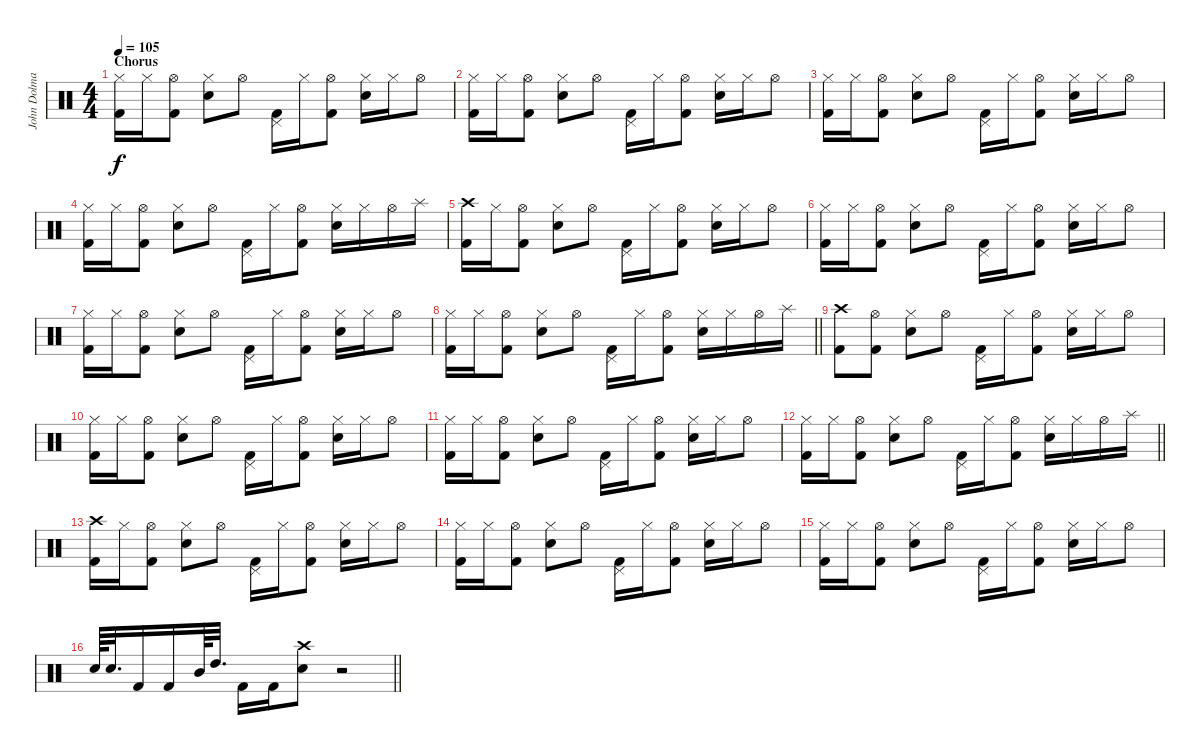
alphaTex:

\track ("John Dolmayan" "John Dolma") {instrument percussion}
\staff {score}
\articulation defaults
\ts (4 4)
\section ("" "Chorus")
\tempo 105
\clef neutral
\ks c
("Hi-Hat (closed)" "Kick (hit) 2").16{dy f} "Hi-Hat (closed)".16 ("Hi-Hat (open)" "Kick (hit) 2").8 ("Hi-Hat (closed)" "Electric Snare (hit)").8 "Hi-Hat (open)".8 ("Pedal Hi-Hat (hit)" "Kick (hit) 2").16 "Hi-Hat (closed)".16 ("Hi-Hat (open)" "Kick (hit) 2").8 ("Hi-Hat (closed)" "Electric Snare (hit)").16 "Hi-Hat (closed)".16 "Hi-Hat (open)".8 |
("Hi-Hat (closed)" "Kick (hit) 2").16 "Hi-Hat (closed)".16 ("Hi-Hat (open)" "Kick (hit) 2").8 ("Hi-Hat (closed)" "Electric Snare (hit)").8 "Hi-Hat (open)".8 ("Pedal Hi-Hat (hit)" "Kick (hit) 2").16 "Hi-Hat (closed)".16 ("Hi-Hat (open)" "Kick (hit) 2").8 ("Hi-Hat (closed)" "Electric Snare (hit)").16 "Hi-Hat (closed)".16 "Hi-Hat (open)".8 |
("Hi-Hat (closed)" "Kick (hit) 2").16 "Hi-Hat (closed)".16 ("Hi-Hat (open)" "Kick (hit) 2").8 ("Hi-Hat (closed)" "Electric Snare (hit)").8 "Hi-Hat (open)".8 ("Pedal Hi-Hat (hit)" "Kick (hit) 2").16 "Hi-Hat (closed)".16 ("Hi-Hat (open)" "Kick (hit) 2").8 ("Hi-Hat (closed)" "Electric Snare (hit)").16 "Hi-Hat (closed)".16 "Hi-Hat (open)".8 |
("Hi-Hat (closed)" "Kick (hit) 2").16 "Hi-Hat (closed)".16 ("Hi-Hat (open)" "Kick (hit) 2").8 ("Hi-Hat (closed)" "Electric Snare (hit)").8 "Hi-Hat (open)".8 ("Pedal Hi-Hat (hit)" "Kick (hit) 2").16 "Hi-Hat (closed)".16 ("Hi-Hat (open)" "Kick (hit) 2").8 ("Hi-Hat (closed)" "Electric Snare (hit)").16 "Hi-Hat (closed)".16 "Hi-Hat (open)".16 "Splash (hit)".16 |
("Crash high (hit)" "Kick (hit) 2").16 "Hi-Hat (closed)".16 ("Hi-Hat (open)" "Kick (hit) 2").8 ("Hi-Hat (closed)" "Electric Snare (hit)").8 "Hi-Hat (open)".8 ("Pedal Hi-Hat (hit)" "Kick (hit) 2").16 "Hi-Hat (closed)".16 ("Hi-Hat (open)" "Kick (hit) 2").8 ("Hi-Hat (closed)" "Electric Snare (hit)").16 "Hi-Hat (closed)".16 "Hi-Hat (open)".8 |
("Hi-Hat (closed)" "Kick (hit) 2").16 "Hi-Hat (closed)".16 ("Hi-Hat (open)" "Kick (hit) 2").8 ("Hi-Hat (closed)" "Electric Snare (hit)").8 "Hi-Hat (open)".8 ("Pedal Hi-Hat (hit)" "Kick (hit) 2").16 "Hi-Hat (closed)".16 ("Hi-Hat (open)" "Kick (hit) 2").8 ("Hi-Hat (closed)" "Electric Snare (hit)").16 "Hi-Hat (closed)".16 "Hi-Hat (open)".8 |
("Hi-Hat (closed)" "Kick (hit) 2").16 "Hi-Hat (closed)".16 ("Hi-Hat (open)" "Kick (hit) 2").8 ("Hi-Hat (closed)" "Electric Snare (hit)").8 "Hi-Hat (open)".8 ("Pedal Hi-Hat (hit)" "Kick (hit) 2").16 "Hi-Hat (closed)".16 ("Hi-Hat (open)" "Kick (hit) 2").8 ("Hi-Hat (closed)" "Electric Snare (hit)").16 "Hi-Hat (closed)".16 "Hi-Hat (open)".8 |
\barLineRight lightlight
("Hi-Hat (closed)" "Kick (hit) 2").16 "Hi-Hat (closed)".16 ("Hi-Hat (open)" "Kick (hit) 2").8 ("Hi-Hat (closed)" "Electric Snare (hit)").8 "Hi-Hat (open)".8 ("Pedal Hi-Hat (hit)" "Kick (hit) 2").16 "Hi-Hat (closed)".16 ("Hi-Hat (open)" "Kick (hit) 2").8 ("Hi-Hat (closed)" "Electric Snare (hit)").16 "Hi-Hat (closed)".16 "Hi-Hat (open)".16 "Splash (hit)".16 |
("Crash high (hit)" "Kick (hit) 2").8 ("Hi-Hat (open)" "Kick (hit) 2").8 ("Hi-Hat (closed)" "Electric Snare (hit)").8 "Hi-Hat (open)".8 ("Pedal Hi-Hat (hit)" "Kick (hit) 2").16 "Hi-Hat (closed)".16 ("Hi-Hat (open)" "Kick (hit) 2").8 ("Hi-Hat (closed)" "Electric Snare (hit)").16 "Hi-Hat (closed)".16 "Hi-Hat (open)".8 |
("Hi-Hat (closed)" "Kick (hit) 2").16 "Hi-Hat (closed)".16 ("Hi-Hat (open)" "Kick (hit) 2").8 ("Hi-Hat (closed)" "Electric Snare (hit)").8 "Hi-Hat (open)".8 ("Pedal Hi-Hat (hit)" "Kick (hit) 2").16 "Hi-Hat (closed)".16 ("Hi-Hat (open)" "Kick (hit) 2").8 ("Hi-Hat (closed)" "Electric Snare (hit)").16 "Hi-Hat (closed)".16 "Hi-Hat (open)".8 |
("Hi-Hat (closed)" "Kick (hit) 2").16 "Hi-Hat (closed)".16 ("Hi-Hat (open)" "Kick (hit) 2").8 ("Hi-Hat (closed)" "Electric Snare (hit)").8 "Hi-Hat (open)".8 ("Pedal Hi-Hat (hit)" "Kick (hit) 2").16 "Hi-Hat (closed)".16 ("Hi-Hat (open)" "Kick (hit) 2").8 ("Hi-Hat (closed)" "Electric Snare (hit)").16 "Hi-Hat (closed)".16 "Hi-Hat (open)".8 |
\barLineRight lightlight
("Hi-Hat (closed)" "Kick (hit) 2").16 "Hi-Hat (closed)".16 ("Hi-Hat (open)" "Kick (hit) 2").8 ("Hi-Hat (closed)" "Electric Snare (hit)").8 "Hi-Hat (open)".8 ("Pedal Hi-Hat (hit)" "Kick (hit) 2").16 "Hi-Hat (closed)".16 ("Hi-Hat (open)" "Kick (hit) 2").8 ("Hi-Hat (closed)" "Electric Snare (hit)").16 "Hi-Hat (closed)".16 "Hi-Hat (open)".16 "Splash (hit)".16 |
("Crash high (hit)" "Kick (hit) 2").16 "Hi-Hat (closed)".16 ("Hi-Hat (open)" "Kick (hit) 2").8 ("Hi-Hat (closed)" "Electric Snare (hit)").8 "Hi-Hat (open)".8 ("Pedal Hi-Hat (hit)" "Kick (hit) 2").16 "Hi-Hat (closed)".16 ("Hi-Hat (open)" "Kick (hit) 2").8 ("Hi-Hat (closed)" "Electric Snare (hit)").16 "Hi-Hat (closed)".16 "Hi-Hat (open)".8 |
("Hi-Hat (closed)" "Kick (hit) 2").16 "Hi-Hat (closed)".16 ("Hi-Hat (open)" "Kick (hit) 2").8 ("Hi-Hat (closed)" "Electric Snare (hit)").8 "Hi-Hat (open)".8 ("Pedal Hi-Hat (hit)" "Kick (hit) 2").16 "Hi-Hat (closed)".16 ("Hi-Hat (open)" "Kick (hit) 2").8 ("Hi-Hat (closed)" "Electric Snare (hit)").16 "Hi-Hat (closed)".16 "Hi-Hat (open)".8 |
("Hi-Hat (closed)" "Kick (hit) 2").16 "Hi-Hat (closed)".16 ("Hi-Hat (open)" "Kick (hit) 2").8 ("Hi-Hat (closed)" "Electric Snare (hit)").8 "Hi-Hat (open)".8 ("Pedal Hi-Hat (hit)" "Kick (hit) 2").16 "Hi-Hat (closed)".16 ("Hi-Hat (open)" "Kick (hit) 2").8 ("Hi-Hat (closed)" "Electric Snare (hit)").16 "Hi-Hat (closed)".16 "Hi-Hat (open)".8 |
\barLineRight lightlight "Electric Snare (hit)".64 "Electric Snare (hit)".32{d} "Kick (hit) 2".16 "Kick (hit) 2".16 "Mid Tom (hit)".64 "High Tom (hit)".32{d} "Kick (hit) 2".16 "Kick (hit) 2".16
("Crash high (hit)" "Electric Snare (hit)").8 r.2
